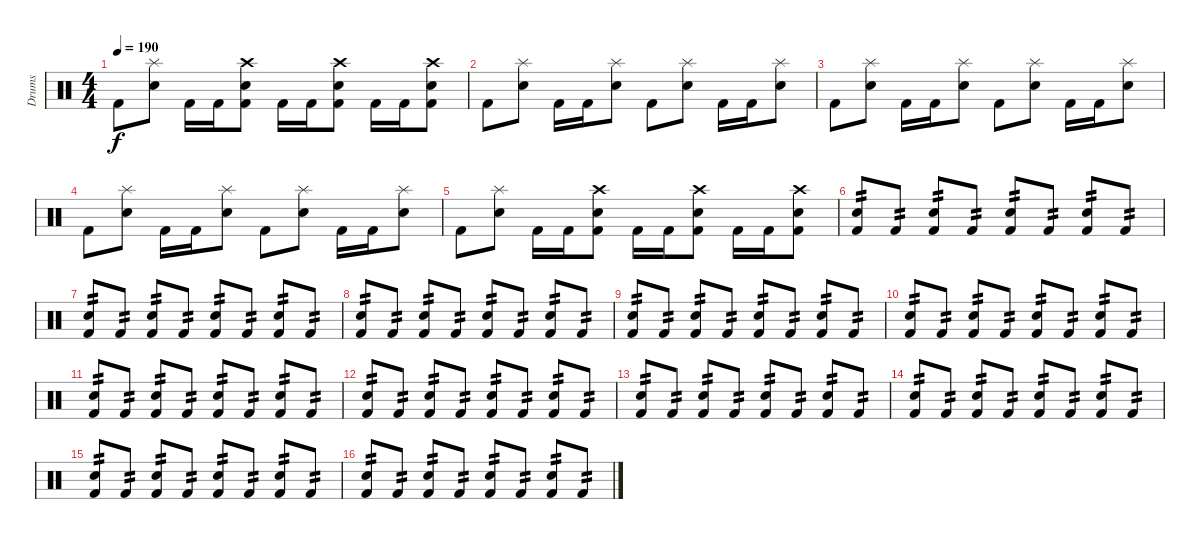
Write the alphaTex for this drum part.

\track ("Drums" "Drums") {instrument percussion}
\staff {score}
\articulation defaults
\ts (4 4)
\tempo 190
\clef neutral
\ks c "Kick (hit) 2".8{dy f}
("Splash (hit)" "Snare (hit) 2").8 "Kick (hit) 2".16 "Kick (hit) 2".16 ("Crash high (hit)" "Snare (hit) 2" "Kick (hit) 2").8 "Kick (hit) 2".16 "Kick (hit) 2".16 ("Crash high (hit)" "Snare (hit) 2" "Kick (hit) 2").8 "Kick (hit) 2".16 "Kick (hit) 2".16 ("Crash high (hit)" "Snare (hit) 2" "Kick (hit) 2").8 |
"Kick (hit) 2".8 ("Splash (hit)" "Snare (hit) 2").8 "Kick (hit) 2".16 "Kick (hit) 2".16 ("Splash (hit)" "Snare (hit) 2").8 "Kick (hit) 2".8 ("Splash (hit)" "Snare (hit) 2").8 "Kick (hit) 2".16 "Kick (hit) 2".16 ("Splash (hit)" "Snare (hit) 2").8 |
"Kick (hit) 2".8 ("Splash (hit)" "Snare (hit) 2").8 "Kick (hit) 2".16 "Kick (hit) 2".16 ("Splash (hit)" "Snare (hit) 2").8 "Kick (hit) 2".8 ("Splash (hit)" "Snare (hit) 2").8 "Kick (hit) 2".16 "Kick (hit) 2".16 ("Splash (hit)" "Snare (hit) 2").8 |
"Kick (hit) 2".8 ("Splash (hit)" "Snare (hit) 2").8 "Kick (hit) 2".16 "Kick (hit) 2".16 ("Splash (hit)" "Snare (hit) 2").8 "Kick (hit) 2".8 ("Splash (hit)" "Snare (hit) 2").8 "Kick (hit) 2".16 "Kick (hit) 2".16 ("Splash (hit)" "Snare (hit) 2").8 |
"Kick (hit) 2".8 ("Splash (hit)" "Snare (hit) 2").8 "Kick (hit) 2".16 "Kick (hit) 2".16 ("Crash high (hit)" "Snare (hit) 2" "Kick (hit) 2").8 "Kick (hit) 2".16 "Kick (hit) 2".16 ("Crash high (hit)" "Snare (hit) 2" "Kick (hit) 2").8 "Kick (hit) 2".16 "Kick (hit) 2".16 ("Crash high (hit)" "Snare (hit) 2" "Kick (hit) 2").8 |
("Snare (hit) 2" "Kick (hit) 2").8{tp 2} "Kick (hit) 2".8{tp 2} ("Snare (hit) 2" "Kick (hit) 2").8{tp 2} "Kick (hit) 2".8{tp 2} ("Snare (hit) 2" "Kick (hit) 2").8{tp 2} "Kick (hit) 2".8{tp 2} ("Snare (hit) 2" "Kick (hit) 2").8{tp 2} "Kick (hit) 2".8{tp 2} |
("Snare (hit) 2" "Kick (hit) 2").8{tp 2} "Kick (hit) 2".8{tp 2} ("Snare (hit) 2" "Kick (hit) 2").8{tp 2} "Kick (hit) 2".8{tp 2} ("Snare (hit) 2" "Kick (hit) 2").8{tp 2} "Kick (hit) 2".8{tp 2} ("Snare (hit) 2" "Kick (hit) 2").8{tp 2} "Kick (hit) 2".8{tp 2} |
("Snare (hit) 2" "Kick (hit) 2").8{tp 2} "Kick (hit) 2".8{tp 2} ("Snare (hit) 2" "Kick (hit) 2").8{tp 2} "Kick (hit) 2".8{tp 2} ("Snare (hit) 2" "Kick (hit) 2").8{tp 2} "Kick (hit) 2".8{tp 2} ("Snare (hit) 2" "Kick (hit) 2").8{tp 2} "Kick (hit) 2".8{tp 2} |
("Snare (hit) 2" "Kick (hit) 2").8{tp 2} "Kick (hit) 2".8{tp 2} ("Snare (hit) 2" "Kick (hit) 2").8{tp 2} "Kick (hit) 2".8{tp 2} ("Snare (hit) 2" "Kick (hit) 2").8{tp 2} "Kick (hit) 2".8{tp 2} ("Snare (hit) 2" "Kick (hit) 2").8{tp 2} "Kick (hit) 2".8{tp 2} |
("Snare (hit) 2" "Kick (hit) 2").8{tp 2} "Kick (hit) 2".8{tp 2} ("Snare (hit) 2" "Kick (hit) 2").8{tp 2} "Kick (hit) 2".8{tp 2} ("Snare (hit) 2" "Kick (hit) 2").8{tp 2} "Kick (hit) 2".8{tp 2} ("Snare (hit) 2" "Kick (hit) 2").8{tp 2} "Kick (hit) 2".8{tp 2} |
("Snare (hit) 2" "Kick (hit) 2").8{tp 2} "Kick (hit) 2".8{tp 2} ("Snare (hit) 2" "Kick (hit) 2").8{tp 2} "Kick (hit) 2".8{tp 2} ("Snare (hit) 2" "Kick (hit) 2").8{tp 2} "Kick (hit) 2".8{tp 2} ("Snare (hit) 2" "Kick (hit) 2").8{tp 2} "Kick (hit) 2".8{tp 2} |
("Snare (hit) 2" "Kick (hit) 2").8{tp 2} "Kick (hit) 2".8{tp 2} ("Snare (hit) 2" "Kick (hit) 2").8{tp 2} "Kick (hit) 2".8{tp 2} ("Snare (hit) 2" "Kick (hit) 2").8{tp 2} "Kick (hit) 2".8{tp 2} ("Snare (hit) 2" "Kick (hit) 2").8{tp 2} "Kick (hit) 2".8{tp 2} |
("Snare (hit) 2" "Kick (hit) 2").8{tp 2} "Kick (hit) 2".8{tp 2} ("Snare (hit) 2" "Kick (hit) 2").8{tp 2} "Kick (hit) 2".8{tp 2} ("Snare (hit) 2" "Kick (hit) 2").8{tp 2} "Kick (hit) 2".8{tp 2} ("Snare (hit) 2" "Kick (hit) 2").8{tp 2} "Kick (hit) 2".8{tp 2} |
("Snare (hit) 2" "Kick (hit) 2").8{tp 2} "Kick (hit) 2".8{tp 2} ("Snare (hit) 2" "Kick (hit) 2").8{tp 2} "Kick (hit) 2".8{tp 2} ("Snare (hit) 2" "Kick (hit) 2").8{tp 2} "Kick (hit) 2".8{tp 2} ("Snare (hit) 2" "Kick (hit) 2").8{tp 2} "Kick (hit) 2".8{tp 2} |
("Snare (hit) 2" "Kick (hit) 2").8{tp 2} "Kick (hit) 2".8{tp 2} ("Snare (hit) 2" "Kick (hit) 2").8{tp 2} "Kick (hit) 2".8{tp 2} ("Snare (hit) 2" "Kick (hit) 2").8{tp 2} "Kick (hit) 2".8{tp 2} ("Snare (hit) 2" "Kick (hit) 2").8{tp 2} "Kick (hit) 2".8{tp 2} |
("Snare (hit) 2" "Kick (hit) 2").8{tp 2} "Kick (hit) 2".8{tp 2} ("Snare (hit) 2" "Kick (hit) 2").8{tp 2} "Kick (hit) 2".8{tp 2} ("Snare (hit) 2" "Kick (hit) 2").8{tp 2} "Kick (hit) 2".8{tp 2} ("Snare (hit) 2" "Kick (hit) 2").8{tp 2} "Kick (hit) 2".8{tp 2}
